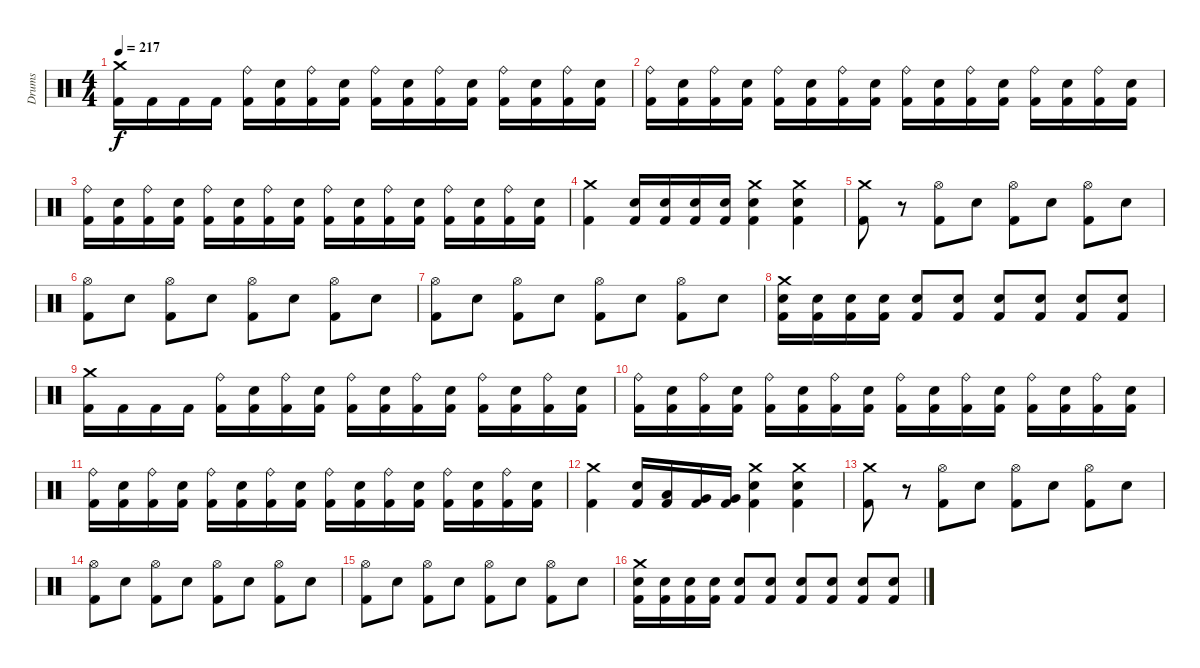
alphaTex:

\track ("Drums" "Drums") {instrument percussion}
\staff {score}
\articulation defaults
\ts (4 4)
\tempo 217
\clef neutral
\ks c
("Crash medium (hit)" "Kick (hit) 2").16{dy f} "Kick (hit) 2".16 "Kick (hit) 2".16 "Kick (hit) 2".16 ("Ride (bell)" "Kick (hit) 2").16 ("Electric Snare (hit)" "Kick (hit) 2").16 ("Ride (bell)" "Kick (hit) 2").16 ("Electric Snare (hit)" "Kick (hit) 2").16 ("Ride (bell)" "Kick (hit) 2").16 ("Electric Snare (hit)" "Kick (hit) 2").16 ("Ride (bell)" "Kick (hit) 2").16 ("Electric Snare (hit)" "Kick (hit) 2").16 ("Ride (bell)" "Kick (hit) 2").16 ("Electric Snare (hit)" "Kick (hit) 2").16 ("Ride (bell)" "Kick (hit) 2").16 ("Electric Snare (hit)" "Kick (hit) 2").16 |
("Ride (bell)" "Kick (hit) 2").16 ("Electric Snare (hit)" "Kick (hit) 2").16 ("Ride (bell)" "Kick (hit) 2").16 ("Electric Snare (hit)" "Kick (hit) 2").16 ("Ride (bell)" "Kick (hit) 2").16 ("Electric Snare (hit)" "Kick (hit) 2").16 ("Ride (bell)" "Kick (hit) 2").16 ("Electric Snare (hit)" "Kick (hit) 2").16 ("Ride (bell)" "Kick (hit) 2").16 ("Electric Snare (hit)" "Kick (hit) 2").16 ("Ride (bell)" "Kick (hit) 2").16 ("Electric Snare (hit)" "Kick (hit) 2").16 ("Ride (bell)" "Kick (hit) 2").16 ("Electric Snare (hit)" "Kick (hit) 2").16 ("Ride (bell)" "Kick (hit) 2").16 ("Electric Snare (hit)" "Kick (hit) 2").16 |
("Ride (bell)" "Kick (hit) 2").16 ("Electric Snare (hit)" "Kick (hit) 2").16 ("Ride (bell)" "Kick (hit) 2").16 ("Electric Snare (hit)" "Kick (hit) 2").16 ("Ride (bell)" "Kick (hit) 2").16 ("Electric Snare (hit)" "Kick (hit) 2").16 ("Ride (bell)" "Kick (hit) 2").16 ("Electric Snare (hit)" "Kick (hit) 2").16 ("Ride (bell)" "Kick (hit) 2").16 ("Electric Snare (hit)" "Kick (hit) 2").16 ("Ride (bell)" "Kick (hit) 2").16 ("Electric Snare (hit)" "Kick (hit) 2").16 ("Ride (bell)" "Kick (hit) 2").16 ("Electric Snare (hit)" "Kick (hit) 2").16 ("Ride (bell)" "Kick (hit) 2").16 ("Electric Snare (hit)" "Kick (hit) 2").16 |
("Crash medium (hit)" "Kick (hit) 2").4 ("Electric Snare (hit)" "Kick (hit) 2").16 ("Electric Snare (hit)" "Kick (hit) 2").16 ("Electric Snare (hit)" "Kick (hit) 2").16 ("Electric Snare (hit)" "Kick (hit) 2").16 ("Crash medium (hit)" "Electric Snare (hit)" "Kick (hit) 2").4 ("Crash medium (hit)" "Electric Snare (hit)" "Kick (hit) 2").4 |
("Crash medium (hit)" "Kick (hit) 2").8 r.8 ("Hi-Hat (open)" "Kick (hit) 2").8 "Electric Snare (hit)".8 ("Hi-Hat (open)" "Kick (hit) 2").8 "Electric Snare (hit)".8 ("Hi-Hat (open)" "Kick (hit) 2").8 "Electric Snare (hit)".8 |
("Hi-Hat (open)" "Kick (hit) 2").8 "Electric Snare (hit)".8 ("Hi-Hat (open)" "Kick (hit) 2").8 "Electric Snare (hit)".8 ("Hi-Hat (open)" "Kick (hit) 2").8 "Electric Snare (hit)".8 ("Hi-Hat (open)" "Kick (hit) 2").8 "Electric Snare (hit)".8 |
("Hi-Hat (open)" "Kick (hit) 2").8 "Electric Snare (hit)".8 ("Hi-Hat (open)" "Kick (hit) 2").8 "Electric Snare (hit)".8 ("Hi-Hat (open)" "Kick (hit) 2").8 "Electric Snare (hit)".8 ("Hi-Hat (open)" "Kick (hit) 2").8 "Electric Snare (hit)".8 |
("Crash medium (hit)" "Electric Snare (hit)" "Kick (hit) 2").16 ("Electric Snare (hit)" "Kick (hit) 2").16 ("Electric Snare (hit)" "Kick (hit) 2").16 ("Electric Snare (hit)" "Kick (hit) 2").16 ("Electric Snare (hit)" "Kick (hit) 2").8 ("Electric Snare (hit)" "Kick (hit) 2").8 ("Electric Snare (hit)" "Kick (hit) 2").8 ("Electric Snare (hit)" "Kick (hit) 2").8 ("Electric Snare (hit)" "Kick (hit) 2").8 ("Electric Snare (hit)" "Kick (hit) 2").8 |
("Crash medium (hit)" "Kick (hit) 2").16 "Kick (hit) 2".16 "Kick (hit) 2".16 "Kick (hit) 2".16 ("Ride (bell)" "Kick (hit) 2").16 ("Electric Snare (hit)" "Kick (hit) 2").16 ("Ride (bell)" "Kick (hit) 2").16 ("Electric Snare (hit)" "Kick (hit) 2").16 ("Ride (bell)" "Kick (hit) 2").16 ("Electric Snare (hit)" "Kick (hit) 2").16 ("Ride (bell)" "Kick (hit) 2").16 ("Electric Snare (hit)" "Kick (hit) 2").16 ("Ride (bell)" "Kick (hit) 2").16 ("Electric Snare (hit)" "Kick (hit) 2").16 ("Ride (bell)" "Kick (hit) 2").16 ("Electric Snare (hit)" "Kick (hit) 2").16 |
("Ride (bell)" "Kick (hit) 2").16 ("Electric Snare (hit)" "Kick (hit) 2").16 ("Ride (bell)" "Kick (hit) 2").16 ("Electric Snare (hit)" "Kick (hit) 2").16 ("Ride (bell)" "Kick (hit) 2").16 ("Electric Snare (hit)" "Kick (hit) 2").16 ("Ride (bell)" "Kick (hit) 2").16 ("Electric Snare (hit)" "Kick (hit) 2").16 ("Ride (bell)" "Kick (hit) 2").16 ("Electric Snare (hit)" "Kick (hit) 2").16 ("Ride (bell)" "Kick (hit) 2").16 ("Electric Snare (hit)" "Kick (hit) 2").16 ("Ride (bell)" "Kick (hit) 2").16 ("Electric Snare (hit)" "Kick (hit) 2").16 ("Ride (bell)" "Kick (hit) 2").16 ("Electric Snare (hit)" "Kick (hit) 2").16 |
("Ride (bell)" "Kick (hit) 2").16 ("Electric Snare (hit)" "Kick (hit) 2").16 ("Ride (bell)" "Kick (hit) 2").16 ("Electric Snare (hit)" "Kick (hit) 2").16 ("Ride (bell)" "Kick (hit) 2").16 ("Electric Snare (hit)" "Kick (hit) 2").16 ("Ride (bell)" "Kick (hit) 2").16 ("Electric Snare (hit)" "Kick (hit) 2").16 ("Ride (bell)" "Kick (hit) 2").16 ("Electric Snare (hit)" "Kick (hit) 2").16 ("Ride (bell)" "Kick (hit) 2").16 ("Electric Snare (hit)" "Kick (hit) 2").16 ("Ride (bell)" "Kick (hit) 2").16 ("Electric Snare (hit)" "Kick (hit) 2").16 ("Ride (bell)" "Kick (hit) 2").16 ("Electric Snare (hit)" "Kick (hit) 2").16 |
("Crash medium (hit)" "Kick (hit) 2").4 ("Electric Snare (hit)" "Kick (hit) 2").16 ("Low Tom (hit)" "Kick (hit) 2").16 ("Very Low Tom (hit)" "Kick (hit) 2").16 ("Very Low Tom (hit)" "Kick (hit) 2").16 ("Crash medium (hit)" "Electric Snare (hit)" "Kick (hit) 2").4 ("Crash medium (hit)" "Electric Snare (hit)" "Kick (hit) 2").4 |
("Crash medium (hit)" "Kick (hit) 2").8 r.8 ("Hi-Hat (open)" "Kick (hit) 2").8 "Electric Snare (hit)".8 ("Hi-Hat (open)" "Kick (hit) 2").8 "Electric Snare (hit)".8 ("Hi-Hat (open)" "Kick (hit) 2").8 "Electric Snare (hit)".8 |
("Hi-Hat (open)" "Kick (hit) 2").8 "Electric Snare (hit)".8 ("Hi-Hat (open)" "Kick (hit) 2").8 "Electric Snare (hit)".8 ("Hi-Hat (open)" "Kick (hit) 2").8 "Electric Snare (hit)".8 ("Hi-Hat (open)" "Kick (hit) 2").8 "Electric Snare (hit)".8 |
("Hi-Hat (open)" "Kick (hit) 2").8 "Electric Snare (hit)".8 ("Hi-Hat (open)" "Kick (hit) 2").8 "Electric Snare (hit)".8 ("Hi-Hat (open)" "Kick (hit) 2").8 "Electric Snare (hit)".8 ("Hi-Hat (open)" "Kick (hit) 2").8 "Electric Snare (hit)".8 |
("Crash medium (hit)" "Electric Snare (hit)" "Kick (hit) 2").16 ("Electric Snare (hit)" "Kick (hit) 2").16 ("Electric Snare (hit)" "Kick (hit) 2").16 ("Electric Snare (hit)" "Kick (hit) 2").16 ("Electric Snare (hit)" "Kick (hit) 2").8 ("Electric Snare (hit)" "Kick (hit) 2").8 ("Electric Snare (hit)" "Kick (hit) 2").8 ("Electric Snare (hit)" "Kick (hit) 2").8 ("Electric Snare (hit)" "Kick (hit) 2").8 ("Electric Snare (hit)" "Kick (hit) 2").8
